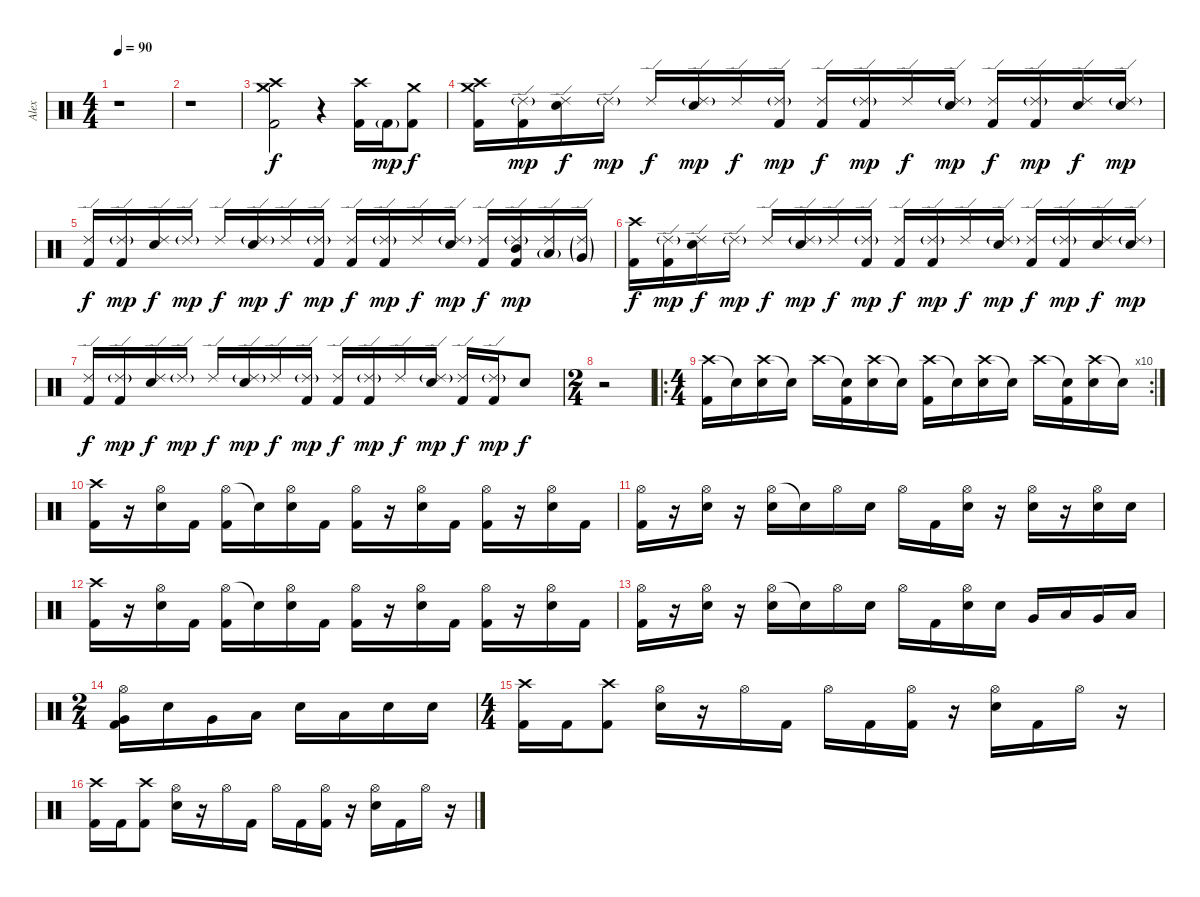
\track ("Alex" "Alex") {instrument percussion}
\staff {score}
\articulation defaults
\ts (4 4)
\tempo 90
\clef neutral
\ks c
r.1{dy f} |
r.1 |
("Crash high (hit)" "Crash medium (hit)" "Kick (hit) 2").2 r.4 ("Crash high (hit)" "Kick (hit) 2").16 "Kick (hit) 2"{g}.16{dy mp} ("Crash medium (hit)" "Kick (hit) 2").8{dy f} |
("Crash high (hit)" "Crash medium (hit)" "Kick (hit) 2").16 ("Ride (edge) 2"{g} "Kick (hit) 2").16{dy mp} ("Ride (edge) 2" "Electric Snare (hit)").16{dy f} "Ride (edge) 2"{g}.16{dy mp} "Ride (edge) 2".16{dy f} ("Ride (edge) 2"{g} "Electric Snare (hit)").16{dy mp} "Ride (edge) 2".16{dy f} ("Ride (edge) 2"{g} "Kick (hit) 2").16{dy mp} ("Ride (edge) 2" "Kick (hit) 2").16{dy f} ("Ride (edge) 2"{g} "Kick (hit) 2").16{dy mp} "Ride (edge) 2".16{dy f} ("Ride (edge) 2"{g} "Electric Snare (hit)").16{dy mp} ("Ride (edge) 2" "Kick (hit) 2").16{dy f} ("Ride (edge) 2"{g} "Kick (hit) 2").16{dy mp} ("Ride (edge) 2" "Electric Snare (hit)").16{dy f} ("Ride (edge) 2"{g} "Electric Snare (hit)").16{dy mp} |
("Ride (edge) 2" "Kick (hit) 2").16{dy f} ("Ride (edge) 2"{g} "Kick (hit) 2").16{dy mp} ("Ride (edge) 2" "Electric Snare (hit)").16{dy f} "Ride (edge) 2"{g}.16{dy mp} "Ride (edge) 2".16{dy f} ("Ride (edge) 2"{g} "Electric Snare (hit)").16{dy mp} "Ride (edge) 2".16{dy f} ("Ride (edge) 2"{g} "Kick (hit) 2").16{dy mp} ("Ride (edge) 2" "Kick (hit) 2").16{dy f} ("Ride (edge) 2"{g} "Kick (hit) 2").16{dy mp} "Ride (edge) 2".16{dy f} ("Ride (edge) 2"{g} "Electric Snare (hit)").16{dy mp} ("Ride (edge) 2" "Kick (hit) 2").16{dy f} ("Ride (edge) 2"{g} "Mid Tom (hit)" "Kick (hit) 2").16{dy mp} ("Ride (edge) 2" "Low Tom (hit)"{g}).16 ("Ride (edge) 2"{g} "Very Low Tom (hit)"{g}).16 |
("Crash high (hit)" "Kick (hit) 2").16{dy f} ("Ride (edge) 2"{g} "Kick (hit) 2").16{dy mp} ("Ride (edge) 2" "Electric Snare (hit)").16{dy f} "Ride (edge) 2"{g}.16{dy mp} "Ride (edge) 2".16{dy f} ("Ride (edge) 2"{g} "Electric Snare (hit)").16{dy mp} "Ride (edge) 2".16{dy f} ("Ride (edge) 2"{g} "Kick (hit) 2").16{dy mp} ("Ride (edge) 2" "Kick (hit) 2").16{dy f} ("Ride (edge) 2"{g} "Kick (hit) 2").16{dy mp} "Ride (edge) 2".16{dy f} ("Ride (edge) 2"{g} "Electric Snare (hit)").16{dy mp} ("Ride (edge) 2" "Kick (hit) 2").16{dy f} ("Ride (edge) 2"{g} "Kick (hit) 2").16{dy mp} ("Ride (edge) 2" "Electric Snare (hit)").16{dy f} ("Ride (edge) 2"{g} "Electric Snare (hit)").16{dy mp} |
("Ride (edge) 2" "Kick (hit) 2").16{dy f} ("Ride (edge) 2"{g} "Kick (hit) 2").16{dy mp} ("Ride (edge) 2" "Electric Snare (hit)").16{dy f} "Ride (edge) 2"{g}.16{dy mp} "Ride (edge) 2".16{dy f} ("Ride (edge) 2"{g} "Electric Snare (hit)").16{dy mp} "Ride (edge) 2".16{dy f} ("Ride (edge) 2"{g} "Kick (hit) 2").16{dy mp} ("Ride (edge) 2" "Kick (hit) 2").16{dy f} ("Ride (edge) 2"{g} "Kick (hit) 2").16{dy mp} "Ride (edge) 2".16{dy f} ("Ride (edge) 2"{g} "Electric Snare (hit)").16{dy mp} ("Ride (edge) 2" "Kick (hit) 2").16{dy f} ("Ride (edge) 2"{g} "Kick (hit) 2").16{dy mp} "Electric Snare (hit)".8{dy f} |
\ts (2 4)
r.2 |
\ro
\rc 10
\ts (4 4)
("Crash high (hit)" "Kick (hit) 2").16 "Snare (hit)"{t}.16 ("Crash high (hit)" "Electric Snare (hit)").16 "Snare (hit)"{t}.16 "Crash high (hit)".16 ("Snare (hit)"{t} "Kick (hit) 2").16 ("Crash high (hit)" "Electric Snare (hit)").16 "Snare (hit)"{t}.16 ("Crash high (hit)" "Kick (hit) 2").16 "Snare (hit)"{t}.16 ("Crash high (hit)" "Electric Snare (hit)").16 "Snare (hit)"{t}.16 "Crash high (hit)".16 ("Snare (hit)"{t} "Kick (hit) 2").16 ("Crash high (hit)" "Electric Snare (hit)").16 "Snare (hit)"{t}.16 |
("Crash high (hit)" "Kick (hit) 2").16 r.16 ("Hi-Hat (open)" "Electric Snare (hit)").16 "Kick (hit) 2".16 ("Hi-Hat (open)" "Kick (hit) 2").16 "Snare (hit)"{t}.16 ("Hi-Hat (open)" "Electric Snare (hit)").16 "Kick (hit) 2".16 ("Hi-Hat (open)" "Kick (hit) 2").16 r.16 ("Hi-Hat (open)" "Electric Snare (hit)").16 "Kick (hit) 2".16 ("Hi-Hat (open)" "Kick (hit) 2").16 r.16 ("Hi-Hat (open)" "Electric Snare (hit)").16 "Kick (hit) 2".16 |
("Hi-Hat (open)" "Kick (hit) 2").16 r.16 ("Hi-Hat (open)" "Electric Snare (hit)").16 r.16 ("Hi-Hat (open)" "Electric Snare (hit)").16 "Snare (hit)"{t}.16 "Hi-Hat (open)".16 "Electric Snare (hit)".16 "Hi-Hat (open)".16 "Kick (hit) 2".16 ("Hi-Hat (open)" "Electric Snare (hit)").16 r.16 ("Hi-Hat (open)" "Electric Snare (hit)").16 r.16 ("Hi-Hat (open)" "Electric Snare (hit)").16 "Electric Snare (hit)".16 |
("Crash high (hit)" "Kick (hit) 2").16 r.16 ("Hi-Hat (open)" "Electric Snare (hit)").16 "Kick (hit) 2".16 ("Hi-Hat (open)" "Kick (hit) 2").16 "Snare (hit)"{t}.16 ("Hi-Hat (open)" "Electric Snare (hit)").16 "Kick (hit) 2".16 ("Hi-Hat (open)" "Kick (hit) 2").16 r.16 ("Hi-Hat (open)" "Electric Snare (hit)").16 "Kick (hit) 2".16 ("Hi-Hat (open)" "Kick (hit) 2").16 r.16 ("Hi-Hat (open)" "Electric Snare (hit)").16 "Kick (hit) 2".16 |
("Hi-Hat (open)" "Kick (hit) 2").16 r.16 ("Hi-Hat (open)" "Electric Snare (hit)").16 r.16 ("Hi-Hat (open)" "Electric Snare (hit)").16 "Snare (hit)"{t}.16 "Hi-Hat (open)".16 "Electric Snare (hit)".16 "Hi-Hat (open)".16 "Kick (hit) 2".16 ("Hi-Hat (open)" "Electric Snare (hit)").16 "Electric Snare (hit)".16 "Very Low Tom (hit)".16 "Low Tom (hit)".16 "Very Low Tom (hit)".16 "Low Tom (hit)".16 |
\ts (2 4)
("Hi-Hat (open)" "Very Low Tom (hit)" "Kick (hit) 2").16 "Electric Snare (hit)".16 "Very Low Tom (hit)".16 "Low Tom (hit)".16 "Electric Snare (hit)".16 "Low Tom (hit)".16 "Electric Snare (hit)".16 "Electric Snare (hit)".16 |
\ts (4 4)
("Crash high (hit)" "Kick (hit) 2").16 "Kick (hit) 2".16 ("Crash high (hit)" "Kick (hit) 2").8 ("Hi-Hat (open)" "Electric Snare (hit)").16 r.16 "Hi-Hat (open)".16 "Kick (hit) 2".16 "Hi-Hat (open)".16 "Kick (hit) 2".16 ("Hi-Hat (open)" "Kick (hit) 2").16 r.16 ("Hi-Hat (open)" "Electric Snare (hit)").16 "Kick (hit) 2".16 "Hi-Hat (open)".16 r.16 |
("Crash high (hit)" "Kick (hit) 2").16 "Kick (hit) 2".16 ("Crash high (hit)" "Kick (hit) 2").8 ("Hi-Hat (open)" "Electric Snare (hit)").16 r.16 "Hi-Hat (open)".16 "Kick (hit) 2".16 "Hi-Hat (open)".16 "Kick (hit) 2".16 ("Hi-Hat (open)" "Kick (hit) 2").16 r.16 ("Hi-Hat (open)" "Electric Snare (hit)").16 "Kick (hit) 2".16 "Hi-Hat (open)".16 r.16
